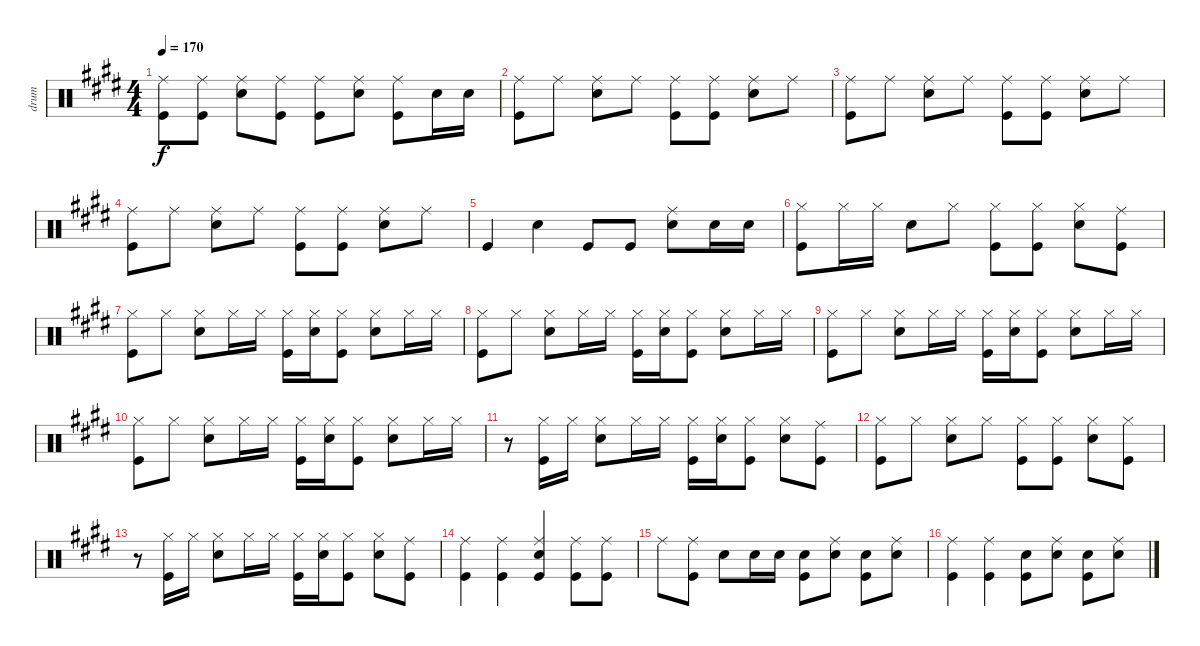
\track ("drum" "drum") {instrument percussion}
\staff {score}
\articulation defaults
\ts (4 4)
\tempo 170
\clef neutral
\ks e
("Kick (hit)" "Ride (middle)").8{dy f} ("Kick (hit)" "Ride (middle)").8 ("Snare (hit) 2" "Ride (middle)").8 ("Kick (hit)" "Ride (middle)").8 ("Kick (hit)" "Ride (middle)").8 ("Snare (hit) 2" "Ride (middle)").8 ("Kick (hit)" "Ride (middle)").8 "Snare (hit) 2".16 "Snare (hit) 2".16 |
("Kick (hit)" "Ride (middle)").8 "Ride (middle)".8 ("Snare (hit) 2" "Ride (middle)").8 "Ride (middle)".8 ("Kick (hit)" "Ride (middle)").8 ("Kick (hit)" "Ride (middle)").8 ("Snare (hit) 2" "Ride (middle)").8 "Ride (middle)".8 |
("Kick (hit)" "Ride (middle)").8 "Ride (middle)".8 ("Snare (hit) 2" "Ride (middle)").8 "Ride (middle)".8 ("Kick (hit)" "Ride (middle)").8 ("Kick (hit)" "Ride (middle)").8 ("Snare (hit) 2" "Ride (middle)").8 "Ride (middle)".8 |
("Kick (hit)" "Ride (middle)").8 "Ride (middle)".8 ("Snare (hit) 2" "Ride (middle)").8 "Ride (middle)".8 ("Kick (hit)" "Ride (middle)").8 ("Kick (hit)" "Ride (middle)").8 ("Snare (hit) 2" "Ride (middle)").8 "Ride (middle)".8 |
"Kick (hit)".4 "Snare (hit) 2".4 "Kick (hit)".8 "Kick (hit)".8 ("Ride (middle)" "Snare (hit) 2").8 "Snare (hit) 2".16 "Snare (hit) 2".16 |
("Hi-Hat (closed)" "Kick (hit)").8 "Hi-Hat (closed)".16 "Hi-Hat (closed)".16 "Snare (hit) 2".8 "Hi-Hat (closed)".8 ("Kick (hit)" "Hi-Hat (closed)").8 ("Kick (hit)" "Hi-Hat (closed)").8 ("Hi-Hat (closed)" "Snare (hit) 2").8 ("Ride (middle)" "Kick (hit)").8 |
("Kick (hit)" "Hi-Hat (closed)").8 "Hi-Hat (closed)".8 ("Snare (hit) 2" "Hi-Hat (closed)").8 "Hi-Hat (closed)".16 "Hi-Hat (closed)".16 ("Kick (hit)" "Hi-Hat (closed)").16 ("Snare (hit) 2" "Hi-Hat (closed)").16 ("Kick (hit)" "Hi-Hat (closed)").8 ("Snare (hit)" "Hi-Hat (closed)").8 "Hi-Hat (closed)".16 "Hi-Hat (closed)".16 |
("Kick (hit)" "Hi-Hat (closed)").8 "Hi-Hat (closed)".8 ("Snare (hit) 2" "Hi-Hat (closed)").8 "Hi-Hat (closed)".16 "Hi-Hat (closed)".16 ("Kick (hit)" "Hi-Hat (closed)").16 ("Snare (hit) 2" "Hi-Hat (closed)").16 ("Kick (hit)" "Hi-Hat (closed)").8 ("Snare (hit)" "Hi-Hat (closed)").8 "Hi-Hat (closed)".16 "Hi-Hat (closed)".16 |
("Kick (hit)" "Hi-Hat (closed)").8 "Hi-Hat (closed)".8 ("Snare (hit) 2" "Hi-Hat (closed)").8 "Hi-Hat (closed)".16 "Hi-Hat (closed)".16 ("Kick (hit)" "Hi-Hat (closed)").16 ("Snare (hit) 2" "Hi-Hat (closed)").16 ("Kick (hit)" "Hi-Hat (closed)").8 ("Snare (hit)" "Hi-Hat (closed)").8 "Hi-Hat (closed)".16 "Hi-Hat (closed)".16 |
("Kick (hit)" "Hi-Hat (closed)").8 "Hi-Hat (closed)".8 ("Snare (hit) 2" "Hi-Hat (closed)").8 "Hi-Hat (closed)".16 "Hi-Hat (closed)".16 ("Kick (hit)" "Hi-Hat (closed)").16 ("Snare (hit) 2" "Hi-Hat (closed)").16 ("Kick (hit)" "Hi-Hat (closed)").8 ("Snare (hit)" "Hi-Hat (closed)").8 "Hi-Hat (closed)".16 "Hi-Hat (closed)".16 |
r.8 ("Hi-Hat (closed)" "Kick (hit)").16 "Hi-Hat (closed)".16 ("Snare (hit) 2" "Hi-Hat (closed)").8 "Hi-Hat (closed)".16 "Hi-Hat (closed)".16 ("Kick (hit)" "Hi-Hat (closed)").16 ("Snare (hit) 2" "Hi-Hat (closed)").16 ("Kick (hit)" "Hi-Hat (closed)").8 ("Hi-Hat (closed)" "Snare (hit) 2").8 ("Kick (hit)" "Ride (middle)").8 |
("Hi-Hat (closed)" "Kick (hit)").8 "Hi-Hat (closed)".8 ("Hi-Hat (closed)" "Snare (hit) 2").8 "Hi-Hat (closed)".8 ("Hi-Hat (closed)" "Kick (hit)").8 ("Kick (hit)" "Hi-Hat (closed)").8 ("Snare (hit) 2" "Hi-Hat (closed)").8 ("Kick (hit)" "Hi-Hat (closed)").8 |
r.8 ("Hi-Hat (closed)" "Kick (hit)").16 "Hi-Hat (closed)".16 ("Snare (hit) 2" "Hi-Hat (closed)").8 "Hi-Hat (closed)".16 "Hi-Hat (closed)".16 ("Kick (hit)" "Hi-Hat (closed)").16 ("Snare (hit) 2" "Hi-Hat (closed)").16 ("Kick (hit)" "Hi-Hat (closed)").8 ("Hi-Hat (closed)" "Snare (hit) 2").8 ("Kick (hit)" "Ride (middle)").8 |
("Kick (hit)" "Ride (middle)").4 ("Kick (hit)" "Ride (middle)").4 ("Snare (hit) 2" "Kick (hit)" "Ride (middle)").4 ("Ride (middle)" "Kick (hit)").8 ("Ride (middle)" "Kick (hit)").8 |
"Ride (middle)".8 ("Kick (hit)" "Ride (middle)").8 "Snare (hit) 2".8 "Snare (hit) 2".16 "Snare (hit) 2".16 ("Kick (hit)" "Snare (hit) 2").8 ("Ride (middle)" "Snare (hit) 2").8 ("Kick (hit)" "Snare (hit) 2").8 ("Ride (middle)" "Snare (hit) 2").8 |
("Kick (hit)" "Ride (middle)").4 ("Kick (hit)" "Ride (middle)").4 ("Kick (hit)" "Snare (hit) 2").8 ("Ride (middle)" "Snare (hit) 2").8 ("Kick (hit)" "Snare (hit) 2").8 ("Ride (middle)" "Snare (hit) 2").8
